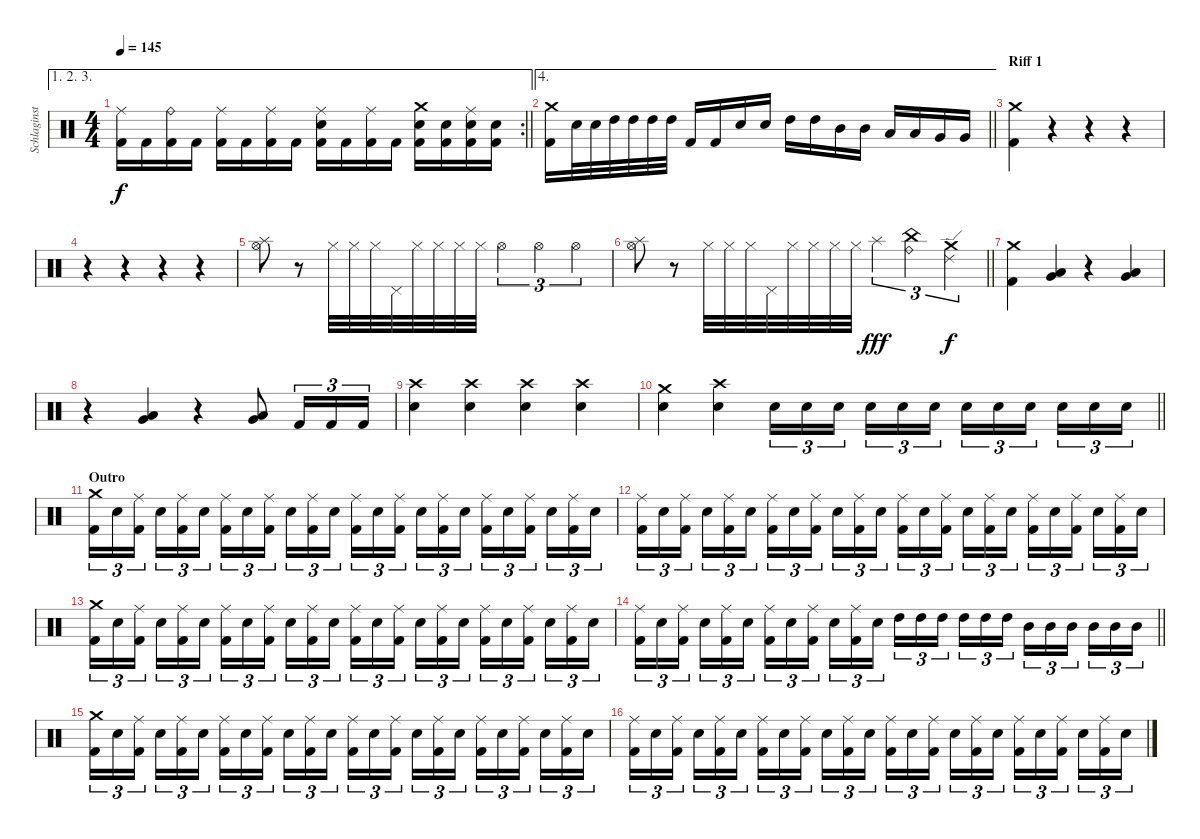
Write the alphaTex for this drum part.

\track ("Schlaginstrumente - Auswahl" "Schlaginst") {instrument percussion}
\staff {score}
\articulation defaults
\ae (1 2 3)
\rc 2
\ts (4 4)
\tempo 145
\clef neutral
\barLineRight lightlight
\ks c
("Ride (middle)" "Kick (hit) 2").16{dy f} "Kick (hit) 2".16 ("Ride (bell)" "Kick (hit) 2").16 "Kick (hit) 2".16 ("Ride (middle)" "Kick (hit) 2").16 "Kick (hit) 2".16 ("Ride (middle)" "Kick (hit) 2").16 "Kick (hit) 2".16 ("Ride (middle)" "Electric Snare (hit)" "Kick (hit) 2").16 "Kick (hit) 2".16 ("Ride (middle)" "Kick (hit) 2").16 "Kick (hit) 2".16 ("Crash medium (hit)" "Electric Snare (hit)" "Kick (hit) 2").16 ("Electric Snare (hit)" "Kick (hit) 2").16 ("Ride (middle)" "Electric Snare (hit)" "Kick (hit) 2").16 ("Electric Snare (hit)" "Kick (hit) 2").16 |
\ae 4
\barLineRight lightlight
("Crash medium (hit)" "Kick (hit) 2").16 "Electric Snare (hit)".32 "Electric Snare (hit)".32 "High Tom (hit)".32 "High Tom (hit)".32 "High Tom (hit)".32 "High Tom (hit)".32 "Kick (hit) 2".16 "Kick (hit) 2".16 "Electric Snare (hit)".16 "Electric Snare (hit)".16 "High Tom (hit)".16 "High Tom (hit)".16 "Mid Tom (hit)".16 "Mid Tom (hit)".16 "Low Tom (hit)".16 "Low Tom (hit)".16 "Very Low Tom (hit)".16 "Very Low Tom (hit)".16 |
\section ("" "Riff 1")
("Crash medium (hit)" "Kick (hit) 2").4 r.4 r.4 r.4 |
r.4 r.4 r.4 r.4 |
("Splash (hit)" "Hi-Hat (open)").8 r.8 "Hi-Hat (closed)".32 "Hi-Hat (closed)".32 "Hi-Hat (closed)".32 "Pedal Hi-Hat (hit)".32 "Hi-Hat (closed)".32 "Hi-Hat (closed)".32 "Hi-Hat (closed)".32 "Hi-Hat (closed)".32 "Hi-Hat (open)".4{tu (3 2)} "Hi-Hat (open)".4{tu (3 2)} "Hi-Hat (open)".4{tu (3 2)} |
\barLineRight lightlight
("Splash (hit)" "Hi-Hat (open)").8 r.8 "Hi-Hat (closed)".32 "Hi-Hat (closed)".32 "Hi-Hat (closed)".32 "Pedal Hi-Hat (hit)".32 "Hi-Hat (closed)".32 "Hi-Hat (closed)".32 "Hi-Hat (closed)".32 "Hi-Hat (closed)".32 "Splash (hit)".4{tu (3 2) dy fff} ("China (hit)" "Ride (bell)").4{tu (3 2)} ("Crash medium (hit)" "Ride (edge) 2").4{tu (3 2) dy f} |
("Crash medium (hit)" "Kick (hit) 2").4 ("Low Tom (hit)" "Very Low Tom (hit)").4 r.4 ("Low Tom (hit)" "Very Low Tom (hit)").4 |
r.4 ("Low Tom (hit)" "Very Low Tom (hit)").4 r.4 ("Low Tom (hit)" "Very Low Tom (hit)").8 "Kick (hit) 2".16{tu (3 2)} "Kick (hit) 2".16{tu (3 2)} "Kick (hit) 2".16{tu (3 2)} |
("Crash high (hit)" "Electric Snare (hit)").4 ("Crash high (hit)" "Electric Snare (hit)").4 ("Crash high (hit)" "Electric Snare (hit)").4 ("Crash high (hit)" "Electric Snare (hit)").4 |
\barLineRight lightlight
("Crash medium (hit)" "Electric Snare (hit)").4 ("Crash high (hit)" "Electric Snare (hit)").4 "Electric Snare (hit)".16{tu (3 2)} "Electric Snare (hit)".16{tu (3 2)} "Electric Snare (hit)".16{tu (3 2) beam splitsecondary} "Electric Snare (hit)".16{tu (3 2)} "Electric Snare (hit)".16{tu (3 2)} "Electric Snare (hit)".16{tu (3 2)} "Electric Snare (hit)".16{tu (3 2)} "Electric Snare (hit)".16{tu (3 2)} "Electric Snare (hit)".16{tu (3 2) beam splitsecondary} "Electric Snare (hit)".16{tu (3 2)} "Electric Snare (hit)".16{tu (3 2)} "Electric Snare (hit)".16{tu (3 2)} |
\section ("" "Outro")
("Crash medium (hit)" "Kick (hit) 2").16{tu (3 2)} "Electric Snare (hit)".16{tu (3 2)} ("Ride (middle)" "Kick (hit) 2").16{tu (3 2) beam splitsecondary} "Electric Snare (hit)".16{tu (3 2)} ("Ride (middle)" "Kick (hit) 2").16{tu (3 2)} "Electric Snare (hit)".16{tu (3 2)} ("Ride (middle)" "Kick (hit) 2").16{tu (3 2)} "Electric Snare (hit)".16{tu (3 2)} ("Ride (middle)" "Kick (hit) 2").16{tu (3 2) beam splitsecondary} "Electric Snare (hit)".16{tu (3 2)} ("Ride (middle)" "Kick (hit) 2").16{tu (3 2)} "Electric Snare (hit)".16{tu (3 2)} ("Ride (middle)" "Kick (hit) 2").16{tu (3 2)} "Electric Snare (hit)".16{tu (3 2)} ("Ride (middle)" "Kick (hit) 2").16{tu (3 2) beam splitsecondary} "Electric Snare (hit)".16{tu (3 2)} ("Ride (middle)" "Kick (hit) 2").16{tu (3 2)} "Electric Snare (hit)".16{tu (3 2)} ("Ride (middle)" "Kick (hit) 2").16{tu (3 2)} "Electric Snare (hit)".16{tu (3 2)} ("Ride (middle)" "Kick (hit) 2").16{tu (3 2) beam splitsecondary} "Electric Snare (hit)".16{tu (3 2)} ("Ride (middle)" "Kick (hit) 2").16{tu (3 2)} "Electric Snare (hit)".16{tu (3 2)} |
("Ride (middle)" "Kick (hit) 2").16{tu (3 2)} "Electric Snare (hit)".16{tu (3 2)} ("Ride (middle)" "Kick (hit) 2").16{tu (3 2) beam splitsecondary} "Electric Snare (hit)".16{tu (3 2)} ("Ride (middle)" "Kick (hit) 2").16{tu (3 2)} "Electric Snare (hit)".16{tu (3 2)} ("Ride (middle)" "Kick (hit) 2").16{tu (3 2)} "Electric Snare (hit)".16{tu (3 2)} ("Ride (middle)" "Kick (hit) 2").16{tu (3 2) beam splitsecondary} "Electric Snare (hit)".16{tu (3 2)} ("Ride (middle)" "Kick (hit) 2").16{tu (3 2)} "Electric Snare (hit)".16{tu (3 2)} ("Ride (middle)" "Kick (hit) 2").16{tu (3 2)} "Electric Snare (hit)".16{tu (3 2)} ("Ride (middle)" "Kick (hit) 2").16{tu (3 2) beam splitsecondary} "Electric Snare (hit)".16{tu (3 2)} ("Ride (middle)" "Kick (hit) 2").16{tu (3 2)} "Electric Snare (hit)".16{tu (3 2)} ("Ride (middle)" "Kick (hit) 2").16{tu (3 2)} "Electric Snare (hit)".16{tu (3 2)} ("Ride (middle)" "Kick (hit) 2").16{tu (3 2) beam splitsecondary} "Electric Snare (hit)".16{tu (3 2)} ("Ride (middle)" "Kick (hit) 2").16{tu (3 2)} "Electric Snare (hit)".16{tu (3 2)} |
("Crash medium (hit)" "Kick (hit) 2").16{tu (3 2)} "Electric Snare (hit)".16{tu (3 2)} ("Ride (middle)" "Kick (hit) 2").16{tu (3 2) beam splitsecondary} "Electric Snare (hit)".16{tu (3 2)} ("Ride (middle)" "Kick (hit) 2").16{tu (3 2)} "Electric Snare (hit)".16{tu (3 2)} ("Ride (middle)" "Kick (hit) 2").16{tu (3 2)} "Electric Snare (hit)".16{tu (3 2)} ("Ride (middle)" "Kick (hit) 2").16{tu (3 2) beam splitsecondary} "Electric Snare (hit)".16{tu (3 2)} ("Ride (middle)" "Kick (hit) 2").16{tu (3 2)} "Electric Snare (hit)".16{tu (3 2)} ("Ride (middle)" "Kick (hit) 2").16{tu (3 2)} "Electric Snare (hit)".16{tu (3 2)} ("Ride (middle)" "Kick (hit) 2").16{tu (3 2) beam splitsecondary} "Electric Snare (hit)".16{tu (3 2)} ("Ride (middle)" "Kick (hit) 2").16{tu (3 2)} "Electric Snare (hit)".16{tu (3 2)} ("Ride (middle)" "Kick (hit) 2").16{tu (3 2)} "Electric Snare (hit)".16{tu (3 2)} ("Ride (middle)" "Kick (hit) 2").16{tu (3 2) beam splitsecondary} "Electric Snare (hit)".16{tu (3 2)} ("Ride (middle)" "Kick (hit) 2").16{tu (3 2)} "Electric Snare (hit)".16{tu (3 2)} |
\barLineRight lightlight
("Ride (middle)" "Kick (hit) 2").16{tu (3 2)} "Electric Snare (hit)".16{tu (3 2)} ("Ride (middle)" "Kick (hit) 2").16{tu (3 2) beam splitsecondary} "Electric Snare (hit)".16{tu (3 2)} ("Ride (middle)" "Kick (hit) 2").16{tu (3 2)} "Electric Snare (hit)".16{tu (3 2)} ("Ride (middle)" "Kick (hit) 2").16{tu (3 2)} "Electric Snare (hit)".16{tu (3 2)} ("Ride (middle)" "Kick (hit) 2").16{tu (3 2) beam splitsecondary} "Electric Snare (hit)".16{tu (3 2)} ("Ride (middle)" "Kick (hit) 2").16{tu (3 2)} "Electric Snare (hit)".16{tu (3 2)} "High Tom (hit)".16{tu (3 2)} "High Tom (hit)".16{tu (3 2)} "High Tom (hit)".16{tu (3 2) beam splitsecondary} "High Tom (hit)".16{tu (3 2)} "High Tom (hit)".16{tu (3 2)} "High Tom (hit)".16{tu (3 2)} "Mid Tom (hit)".16{tu (3 2)} "Mid Tom (hit)".16{tu (3 2)} "Mid Tom (hit)".16{tu (3 2) beam splitsecondary} "Mid Tom (hit)".16{tu (3 2)} "Mid Tom (hit)".16{tu (3 2)} "Mid Tom (hit)".16{tu (3 2)} |
("Crash medium (hit)" "Kick (hit) 2").16{tu (3 2)} "Electric Snare (hit)".16{tu (3 2)} ("Ride (middle)" "Kick (hit) 2").16{tu (3 2) beam splitsecondary} "Electric Snare (hit)".16{tu (3 2)} ("Ride (middle)" "Kick (hit) 2").16{tu (3 2)} "Electric Snare (hit)".16{tu (3 2)} ("Ride (middle)" "Kick (hit) 2").16{tu (3 2)} "Electric Snare (hit)".16{tu (3 2)} ("Ride (middle)" "Kick (hit) 2").16{tu (3 2) beam splitsecondary} "Electric Snare (hit)".16{tu (3 2)} ("Ride (middle)" "Kick (hit) 2").16{tu (3 2)} "Electric Snare (hit)".16{tu (3 2)} ("Ride (middle)" "Kick (hit) 2").16{tu (3 2)} "Electric Snare (hit)".16{tu (3 2)} ("Ride (middle)" "Kick (hit) 2").16{tu (3 2) beam splitsecondary} "Electric Snare (hit)".16{tu (3 2)} ("Ride (middle)" "Kick (hit) 2").16{tu (3 2)} "Electric Snare (hit)".16{tu (3 2)} ("Ride (middle)" "Kick (hit) 2").16{tu (3 2)} "Electric Snare (hit)".16{tu (3 2)} ("Ride (middle)" "Kick (hit) 2").16{tu (3 2) beam splitsecondary} "Electric Snare (hit)".16{tu (3 2)} ("Ride (middle)" "Kick (hit) 2").16{tu (3 2)} "Electric Snare (hit)".16{tu (3 2)} |
("Ride (middle)" "Kick (hit) 2").16{tu (3 2)} "Electric Snare (hit)".16{tu (3 2)} ("Ride (middle)" "Kick (hit) 2").16{tu (3 2) beam splitsecondary} "Electric Snare (hit)".16{tu (3 2)} ("Ride (middle)" "Kick (hit) 2").16{tu (3 2)} "Electric Snare (hit)".16{tu (3 2)} ("Ride (middle)" "Kick (hit) 2").16{tu (3 2)} "Electric Snare (hit)".16{tu (3 2)} ("Ride (middle)" "Kick (hit) 2").16{tu (3 2) beam splitsecondary} "Electric Snare (hit)".16{tu (3 2)} ("Ride (middle)" "Kick (hit) 2").16{tu (3 2)} "Electric Snare (hit)".16{tu (3 2)} ("Ride (middle)" "Kick (hit) 2").16{tu (3 2)} "Electric Snare (hit)".16{tu (3 2)} ("Ride (middle)" "Kick (hit) 2").16{tu (3 2) beam splitsecondary} "Electric Snare (hit)".16{tu (3 2)} ("Ride (middle)" "Kick (hit) 2").16{tu (3 2)} "Electric Snare (hit)".16{tu (3 2)} ("Ride (middle)" "Kick (hit) 2").16{tu (3 2)} "Electric Snare (hit)".16{tu (3 2)} ("Ride (middle)" "Kick (hit) 2").16{tu (3 2) beam splitsecondary} "Electric Snare (hit)".16{tu (3 2)} ("Ride (middle)" "Kick (hit) 2").16{tu (3 2)} "Electric Snare (hit)".16{tu (3 2)}
